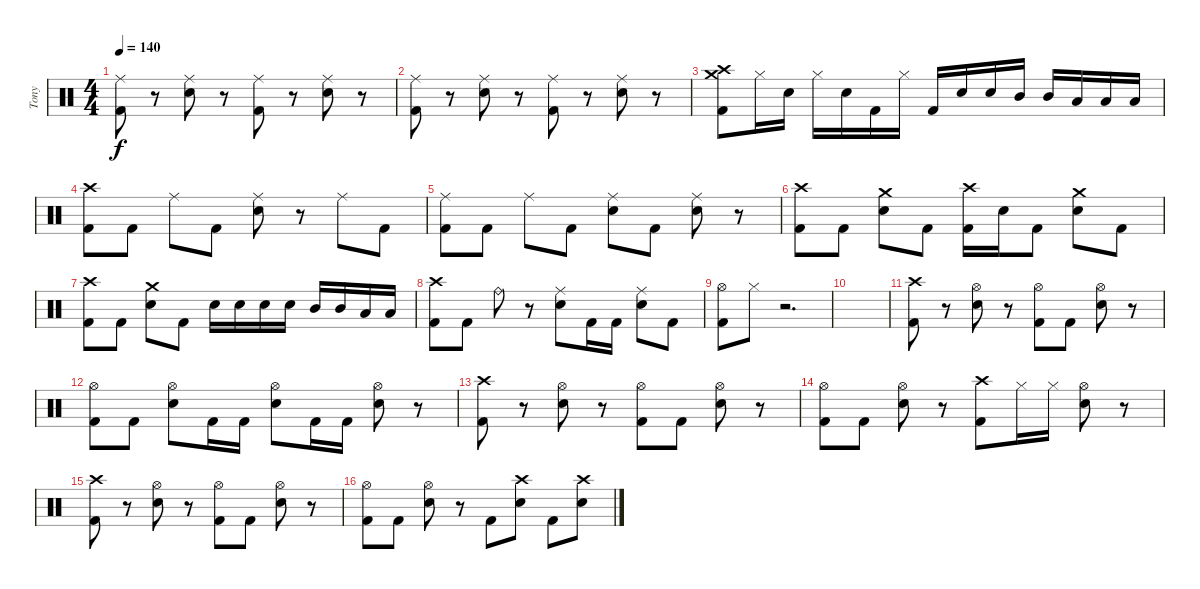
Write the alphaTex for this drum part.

\track ("Tony" "Tony") {instrument percussion}
\staff {score}
\articulation defaults
\ts (4 4)
\tempo 140
\clef neutral
\ks c
("Ride (middle)" "Kick (hit) 2").8{dy f} r.8 ("Ride (middle)" "Electric Snare (hit)").8 r.8 ("Ride (middle)" "Kick (hit) 2").8 r.8 ("Ride (middle)" "Electric Snare (hit)").8 r.8 |
("Ride (middle)" "Kick (hit) 2").8 r.8 ("Ride (middle)" "Electric Snare (hit)").8 r.8 ("Ride (middle)" "Kick (hit) 2").8 r.8 ("Ride (middle)" "Electric Snare (hit)").8 r.8 |
("Crash high (hit)" "Crash medium (hit)" "Kick (hit) 2").8 "Hi-Hat (closed)".16 "Electric Snare (hit)".16 "Hi-Hat (closed)".16 "Electric Snare (hit)".16 "Kick (hit) 2".16 "Hi-Hat (closed)".16 "Kick (hit) 2".16 "Electric Snare (hit)".16 "Electric Snare (hit)".16 "Mid Tom (hit)".16 "Mid Tom (hit)".16 "Low Tom (hit)".16 "Low Tom (hit)".16 "Low Tom (hit)".16 |
("Crash high (hit)" "Kick (hit) 2").8 "Kick (hit) 2".8 "Ride (middle)".8 "Kick (hit) 2".8 ("Ride (middle)" "Electric Snare (hit)").8 r.8 "Ride (middle)".8 "Kick (hit) 2".8 |
("Ride (middle)" "Kick (hit) 2").8 "Kick (hit) 2".8 "Ride (middle)".8 "Kick (hit) 2".8 ("Ride (middle)" "Electric Snare (hit)").8 "Kick (hit) 2".8 ("Ride (middle)" "Electric Snare (hit)").8 r.8 |
("Kick (hit) 2" "Crash high (hit)").8 "Kick (hit) 2".8 ("Electric Snare (hit)" "Crash medium (hit)").8 "Kick (hit) 2".8 ("Kick (hit) 2" "Crash high (hit)").16 "Electric Snare (hit)".16 "Kick (hit) 2".8 ("Electric Snare (hit)" "Crash medium (hit)").8 "Kick (hit) 2".8 |
("Kick (hit) 2" "Crash high (hit)").8 "Kick (hit) 2".8 ("Electric Snare (hit)" "Crash medium (hit)").8 "Kick (hit) 2".8 "Electric Snare (hit)".16 "Electric Snare (hit)".16 "Electric Snare (hit)".16 "Electric Snare (hit)".16 "Mid Tom (hit)".16 "Mid Tom (hit)".16 "Low Tom (hit)".16 "Low Tom (hit)".16 |
("Crash high (hit)" "Kick (hit) 2").8 "Kick (hit) 2".8 "Ride (bell)".8 r.8 ("Ride (middle)" "Electric Snare (hit)").8 "Kick (hit) 2".16 "Kick (hit) 2".16 ("Ride (middle)" "Electric Snare (hit)").8 "Kick (hit) 2".8 |
("Kick (hit) 2" "Hi-Hat (open)").8 "Hi-Hat (closed)".8 r.2{d} |
|
("Crash high (hit)" "Kick (hit) 2").8 r.8 ("Hi-Hat (open)" "Electric Snare (hit)").8 r.8 ("Hi-Hat (open)" "Kick (hit) 2").8 "Kick (hit) 2".8 ("Hi-Hat (open)" "Electric Snare (hit)").8 r.8 |
("Hi-Hat (open)" "Kick (hit) 2").8 "Kick (hit) 2".8 ("Hi-Hat (open)" "Electric Snare (hit)").8 "Kick (hit) 2".16 "Kick (hit) 2".16 ("Hi-Hat (open)" "Electric Snare (hit)").8 "Kick (hit) 2".16 "Kick (hit) 2".16 ("Hi-Hat (open)" "Electric Snare (hit)").8 r.8 |
("Crash high (hit)" "Kick (hit) 2").8 r.8 ("Hi-Hat (open)" "Electric Snare (hit)").8 r.8 ("Hi-Hat (open)" "Kick (hit) 2").8 "Kick (hit) 2".8 ("Hi-Hat (open)" "Electric Snare (hit)").8 r.8 |
("Hi-Hat (open)" "Kick (hit) 2").8 "Kick (hit) 2".8 ("Hi-Hat (open)" "Electric Snare (hit)").8 r.8 ("Crash high (hit)" "Kick (hit) 2").8 "Hi-Hat (closed)".16 "Hi-Hat (closed)".16 ("Hi-Hat (open)" "Electric Snare (hit)").8 r.8 |
("Crash high (hit)" "Kick (hit) 2").8 r.8 ("Hi-Hat (open)" "Electric Snare (hit)").8 r.8 ("Hi-Hat (open)" "Kick (hit) 2").8 "Kick (hit) 2".8 ("Hi-Hat (open)" "Electric Snare (hit)").8 r.8 |
("Hi-Hat (open)" "Kick (hit) 2").8 "Kick (hit) 2".8 ("Hi-Hat (open)" "Electric Snare (hit)").8 r.8 "Kick (hit) 2".8 ("Crash high (hit)" "Electric Snare (hit)").8 "Kick (hit) 2".8 ("Crash high (hit)" "Electric Snare (hit)").8
